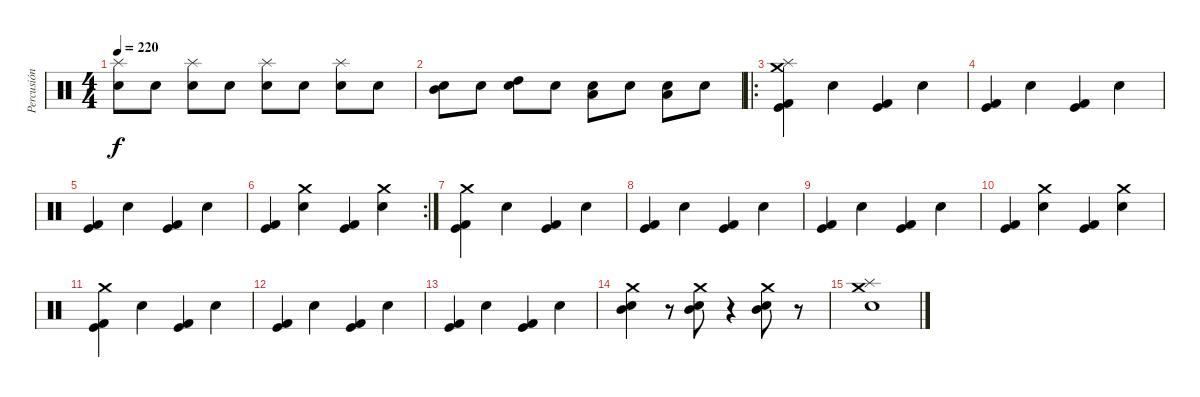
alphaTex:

\track ("Percusión" "Percusión") {instrument percussion}
\staff {score}
\articulation defaults
\ts (4 4)
\tempo 220
\clef neutral
\ks c
("Splash (hit)" "Snare (hit) 2").8{dy f} "Snare (hit) 2".8 ("Splash (hit)" "Snare (hit) 2").8 "Snare (hit) 2".8 ("Splash (hit)" "Snare (hit) 2").8 "Snare (hit) 2".8 ("Splash (hit)" "Snare (hit) 2").8 "Snare (hit) 2".8 |
("Mid Tom (hit)" "Snare (hit) 2").8 "Snare (hit) 2".8 ("High Tom (hit)" "Snare (hit) 2").8 "Snare (hit) 2".8 ("Low Tom (hit)" "Snare (hit) 2").8 "Snare (hit) 2".8 ("Low Tom (hit)" "Snare (hit) 2").8 "Snare (hit) 2".8 |
\ro
("Splash (hit)" "Crash medium (hit)" "Kick (hit) 2" "Kick (hit)").4 "Snare (hit) 2".4 ("Kick (hit) 2" "Kick (hit)").4 "Snare (hit) 2".4 |
("Kick (hit) 2" "Kick (hit)").4 "Snare (hit) 2".4 ("Kick (hit) 2" "Kick (hit)").4 "Snare (hit) 2".4 |
("Kick (hit) 2" "Kick (hit)").4 "Snare (hit) 2".4 ("Kick (hit) 2" "Kick (hit)").4 "Snare (hit) 2".4 |
\rc 2
("Kick (hit) 2" "Kick (hit)").4 ("Crash medium (hit)" "Snare (hit) 2").4 ("Kick (hit) 2" "Kick (hit)").4 ("Crash medium (hit)" "Snare (hit) 2").4 |
("Crash medium (hit)" "Kick (hit) 2" "Kick (hit)").4 "Snare (hit) 2".4 ("Kick (hit) 2" "Kick (hit)").4 "Snare (hit) 2".4 |
("Kick (hit) 2" "Kick (hit)").4 "Snare (hit) 2".4 ("Kick (hit) 2" "Kick (hit)").4 "Snare (hit) 2".4 |
("Kick (hit) 2" "Kick (hit)").4 "Snare (hit) 2".4 ("Kick (hit) 2" "Kick (hit)").4 "Snare (hit) 2".4 |
("Kick (hit) 2" "Kick (hit)").4 ("Crash medium (hit)" "Snare (hit) 2").4 ("Kick (hit) 2" "Kick (hit)").4 ("Crash medium (hit)" "Snare (hit) 2").4 |
("Crash medium (hit)" "Kick (hit) 2" "Kick (hit)").4 "Snare (hit) 2".4 ("Kick (hit) 2" "Kick (hit)").4 "Snare (hit) 2".4 |
("Kick (hit) 2" "Kick (hit)").4 "Snare (hit) 2".4 ("Kick (hit) 2" "Kick (hit)").4 "Snare (hit) 2".4 |
("Kick (hit) 2" "Kick (hit)").4 "Snare (hit) 2".4 ("Kick (hit) 2" "Kick (hit)").4 "Snare (hit) 2".4 |
("Mid Tom (hit)" "Crash medium (hit)" "Snare (hit) 2").4 r.8 ("Mid Tom (hit)" "Crash medium (hit)" "Snare (hit) 2").8 r.4 ("Mid Tom (hit)" "Crash medium (hit)" "Snare (hit) 2").8 r.8 |
("Splash (hit)" "Crash medium (hit)" "Snare (hit) 2").1
